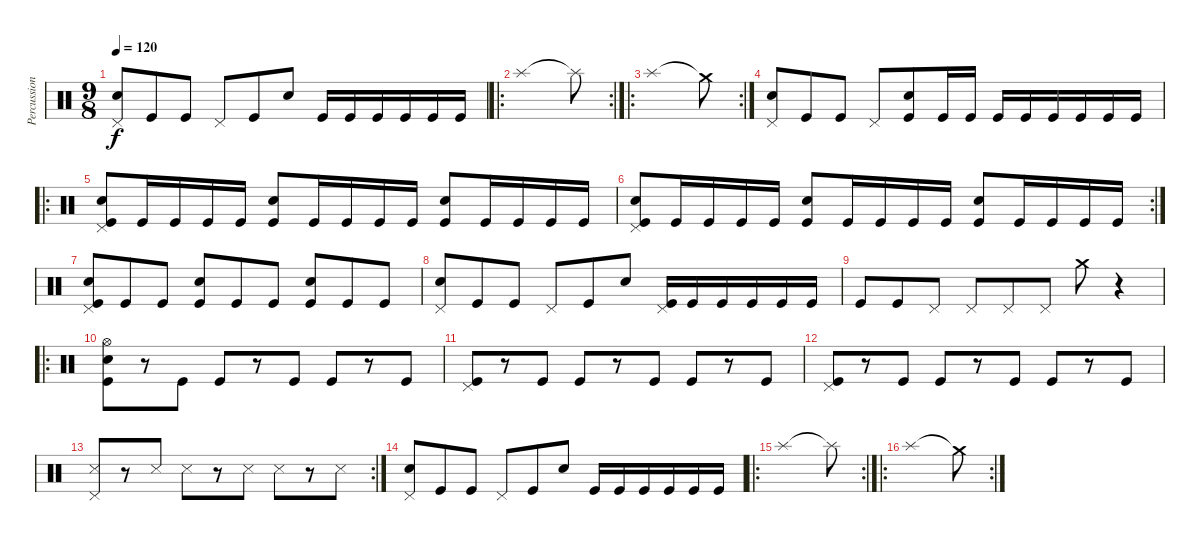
\track ("Percussion" "Percussion") {instrument percussion}
\staff {score}
\articulation defaults
\ts (9 8)
\tempo 120
\clef neutral
\ks c
("Pedal Hi-Hat (hit)" "Snare (hit) 2").8{dy f} "Kick (hit)".8 "Kick (hit)".8 "Pedal Hi-Hat (hit)".8 "Kick (hit)".8 "Snare (hit) 2".8 "Kick (hit)".16 "Kick (hit)".16 "Kick (hit)".16 "Kick (hit)".16 "Kick (hit)".16 "Kick (hit)".16 |
\ro
\rc 2 "Splash (hit)".1 "Splash (hit)"{t}.8
|
\ro
\rc 2 "Splash (hit)".1 "Crash medium (hit)"{t}.8
|
("Pedal Hi-Hat (hit)" "Snare (hit) 2").8 "Kick (hit)".8 "Kick (hit)".8 "Pedal Hi-Hat (hit)".8 ("Snare (hit) 2" "Kick (hit)").8 "Kick (hit)".16 "Kick (hit)".16 "Kick (hit)".16 "Kick (hit)".16 "Kick (hit)".16 "Kick (hit)".16 "Kick (hit)".16 "Kick (hit)".16 |
\ro
("Pedal Hi-Hat (hit)" "Snare (hit) 2" "Kick (hit)").8 "Kick (hit)".16 "Kick (hit)".16 "Kick (hit)".16 "Kick (hit)".16 ("Snare (hit) 2" "Kick (hit)").8 "Kick (hit)".16 "Kick (hit)".16 "Kick (hit)".16 "Kick (hit)".16 ("Snare (hit) 2" "Kick (hit)").8 "Kick (hit)".16 "Kick (hit)".16 "Kick (hit)".16 "Kick (hit)".16 |
\rc 2
("Pedal Hi-Hat (hit)" "Snare (hit) 2" "Kick (hit)").8 "Kick (hit)".16 "Kick (hit)".16 "Kick (hit)".16 "Kick (hit)".16 ("Snare (hit) 2" "Kick (hit)").8 "Kick (hit)".16 "Kick (hit)".16 "Kick (hit)".16 "Kick (hit)".16 ("Snare (hit) 2" "Kick (hit)").8 "Kick (hit)".16 "Kick (hit)".16 "Kick (hit)".16 "Kick (hit)".16 |
("Pedal Hi-Hat (hit)" "Snare (hit) 2" "Kick (hit)").8 "Kick (hit)".8 "Kick (hit)".8 ("Snare (hit) 2" "Kick (hit)").8 "Kick (hit)".8 "Kick (hit)".8 ("Snare (hit) 2" "Kick (hit)").8 "Kick (hit)".8 "Kick (hit)".8 |
("Pedal Hi-Hat (hit)" "Snare (hit) 2").8 "Kick (hit)".8 "Kick (hit)".8 "Pedal Hi-Hat (hit)".8 "Kick (hit)".8 "Snare (hit) 2".8 ("Pedal Hi-Hat (hit)" "Kick (hit)").16 "Kick (hit)".16 "Kick (hit)".16 "Kick (hit)".16 "Kick (hit)".16 "Kick (hit)".16 |
"Kick (hit)".8 "Kick (hit)".8 "Pedal Hi-Hat (hit)".8 "Pedal Hi-Hat (hit)".8 "Pedal Hi-Hat (hit)".8 "Pedal Hi-Hat (hit)".8 "Crash medium (hit)".8 r.4 |
\ro
("Hi-Hat (open)" "Snare (hit) 2" "Kick (hit)").8 r.8 "Kick (hit)".8 "Kick (hit)".8 r.8 "Kick (hit)".8 "Kick (hit)".8 r.8 "Kick (hit)".8 |
("Pedal Hi-Hat (hit)" "Kick (hit)").8 r.8 "Kick (hit)".8 "Kick (hit)".8 r.8 "Kick (hit)".8 "Kick (hit)".8 r.8 "Kick (hit)".8 |
("Pedal Hi-Hat (hit)" "Kick (hit)").8 r.8 "Kick (hit)".8 "Kick (hit)".8 r.8 "Kick (hit)".8 "Kick (hit)".8 r.8 "Kick (hit)".8 |
\rc 2
("Pedal Hi-Hat (hit)" "Snare (side stick) 3").8 r.8 "Snare (side stick) 3".8 "Snare (side stick) 3".8 r.8 "Snare (side stick) 3".8 "Snare (side stick) 3".8 r.8 "Snare (side stick) 3".8 |
("Pedal Hi-Hat (hit)" "Snare (hit) 2").8 "Kick (hit)".8 "Kick (hit)".8 "Pedal Hi-Hat (hit)".8 "Kick (hit)".8 "Snare (hit) 2".8 "Kick (hit)".16 "Kick (hit)".16 "Kick (hit)".16 "Kick (hit)".16 "Kick (hit)".16 "Kick (hit)".16 |
\ro
\rc 2 "Splash (hit)".1 "Splash (hit)"{t}.8
|
\ro
\rc 2 "Splash (hit)".1 "Crash medium (hit)"{t}.8
